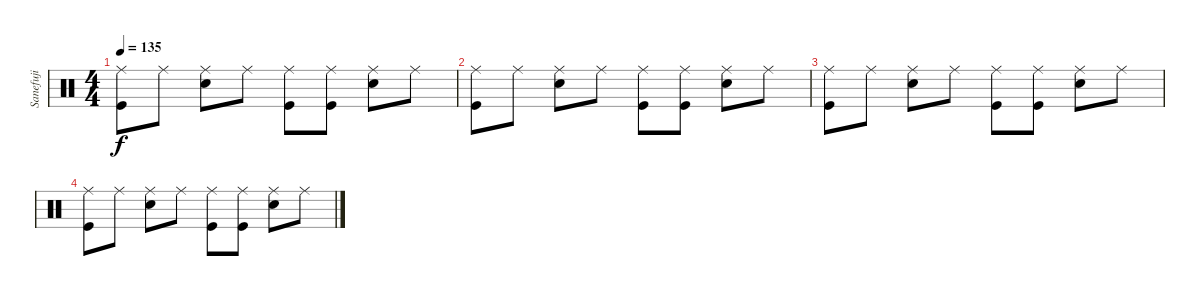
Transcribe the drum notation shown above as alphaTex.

\track ("Sanefuji" "Sanefuji") {instrument percussion}
\staff {score}
\articulation defaults
\ts (4 4)
\tempo 135
\clef neutral
\ks c
("Ride (middle)" "Kick (hit)").8{dy f} "Ride (middle)".8 ("Ride (middle)" "Electric Snare (hit)").8 "Ride (middle)".8 ("Ride (middle)" "Kick (hit)").8 ("Ride (middle)" "Kick (hit)").8 ("Ride (middle)" "Electric Snare (hit)").8 "Ride (middle)".8 |
("Ride (middle)" "Kick (hit)").8 "Ride (middle)".8 ("Ride (middle)" "Electric Snare (hit)").8 "Ride (middle)".8 ("Ride (middle)" "Kick (hit)").8 ("Ride (middle)" "Kick (hit)").8 ("Ride (middle)" "Electric Snare (hit)").8 "Ride (middle)".8 |
("Ride (middle)" "Kick (hit)").8 "Ride (middle)".8 ("Ride (middle)" "Electric Snare (hit)").8 "Ride (middle)".8 ("Ride (middle)" "Kick (hit)").8 ("Ride (middle)" "Kick (hit)").8 ("Ride (middle)" "Electric Snare (hit)").8 "Ride (middle)".8 |
("Ride (middle)" "Kick (hit)").8 "Ride (middle)".8 ("Ride (middle)" "Electric Snare (hit)").8 "Ride (middle)".8 ("Ride (middle)" "Kick (hit)").8 ("Ride (middle)" "Kick (hit)").8 ("Ride (middle)" "Electric Snare (hit)").8 "Ride (middle)".8
